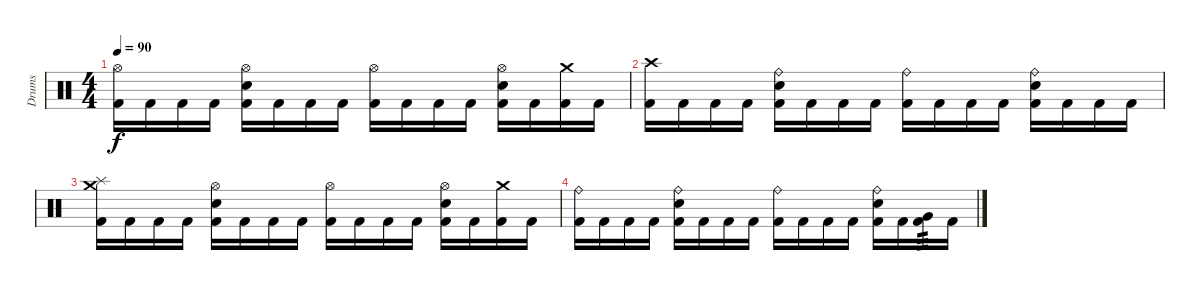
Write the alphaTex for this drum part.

\track ("Drums" "Drums") {instrument percussion}
\staff {score}
\articulation defaults
\ts (4 4)
\tempo 90
\clef neutral
\ks c
("Hi-Hat (open)" "Kick (hit) 2").16{dy f volume 0} "Kick (hit) 2".16 "Kick (hit) 2".16 "Kick (hit) 2".16 ("Electric Snare (hit)" "Hi-Hat (open)" "Kick (hit) 2").16 "Kick (hit) 2".16 "Kick (hit) 2".16 "Kick (hit) 2".16 ("Hi-Hat (open)" "Kick (hit) 2").16 "Kick (hit) 2".16 "Kick (hit) 2".16 "Kick (hit) 2".16 ("Electric Snare (hit)" "Hi-Hat (open)" "Kick (hit) 2").16 "Kick (hit) 2".16 ("Crash medium (hit)" "Kick (hit) 2").16 "Kick (hit) 2".16 |
("Crash high (hit)" "Kick (hit) 2").16 "Kick (hit) 2".16 "Kick (hit) 2".16 "Kick (hit) 2".16 ("Electric Snare (hit)" "Ride (bell)" "Kick (hit) 2").16 "Kick (hit) 2".16 "Kick (hit) 2".16 "Kick (hit) 2".16 ("Ride (bell)" "Kick (hit) 2").16 "Kick (hit) 2".16 "Kick (hit) 2".16 "Kick (hit) 2".16 ("Electric Snare (hit)" "Ride (bell)" "Kick (hit) 2").16 "Kick (hit) 2".16 "Kick (hit) 2".16 "Kick (hit) 2".16 |
("Crash medium (hit)" "Splash (hit)" "Kick (hit) 2").16 "Kick (hit) 2".16 "Kick (hit) 2".16 "Kick (hit) 2".16 ("Electric Snare (hit)" "Hi-Hat (open)" "Kick (hit) 2").16 "Kick (hit) 2".16 "Kick (hit) 2".16 "Kick (hit) 2".16 ("Hi-Hat (open)" "Kick (hit) 2").16 "Kick (hit) 2".16 "Kick (hit) 2".16 "Kick (hit) 2".16 ("Electric Snare (hit)" "Hi-Hat (open)" "Kick (hit) 2").16 "Kick (hit) 2".16 ("Crash medium (hit)" "Kick (hit) 2").16 "Kick (hit) 2".16 |
("Ride (bell)" "Kick (hit) 2").16 "Kick (hit) 2".16 "Kick (hit) 2".16 "Kick (hit) 2".16 ("Electric Snare (hit)" "Ride (bell)" "Kick (hit) 2").16 "Kick (hit) 2".16 "Kick (hit) 2".16 "Kick (hit) 2".16 ("Ride (bell)" "Kick (hit) 2").16 "Kick (hit) 2".16 "Kick (hit) 2".16 "Kick (hit) 2".16 ("Electric Snare (hit)" "Ride (bell)" "Kick (hit) 2").16 "Kick (hit) 2".16 ("Very Low Tom (hit)" "Kick (hit) 2").16{tp 3} "Kick (hit) 2".16
